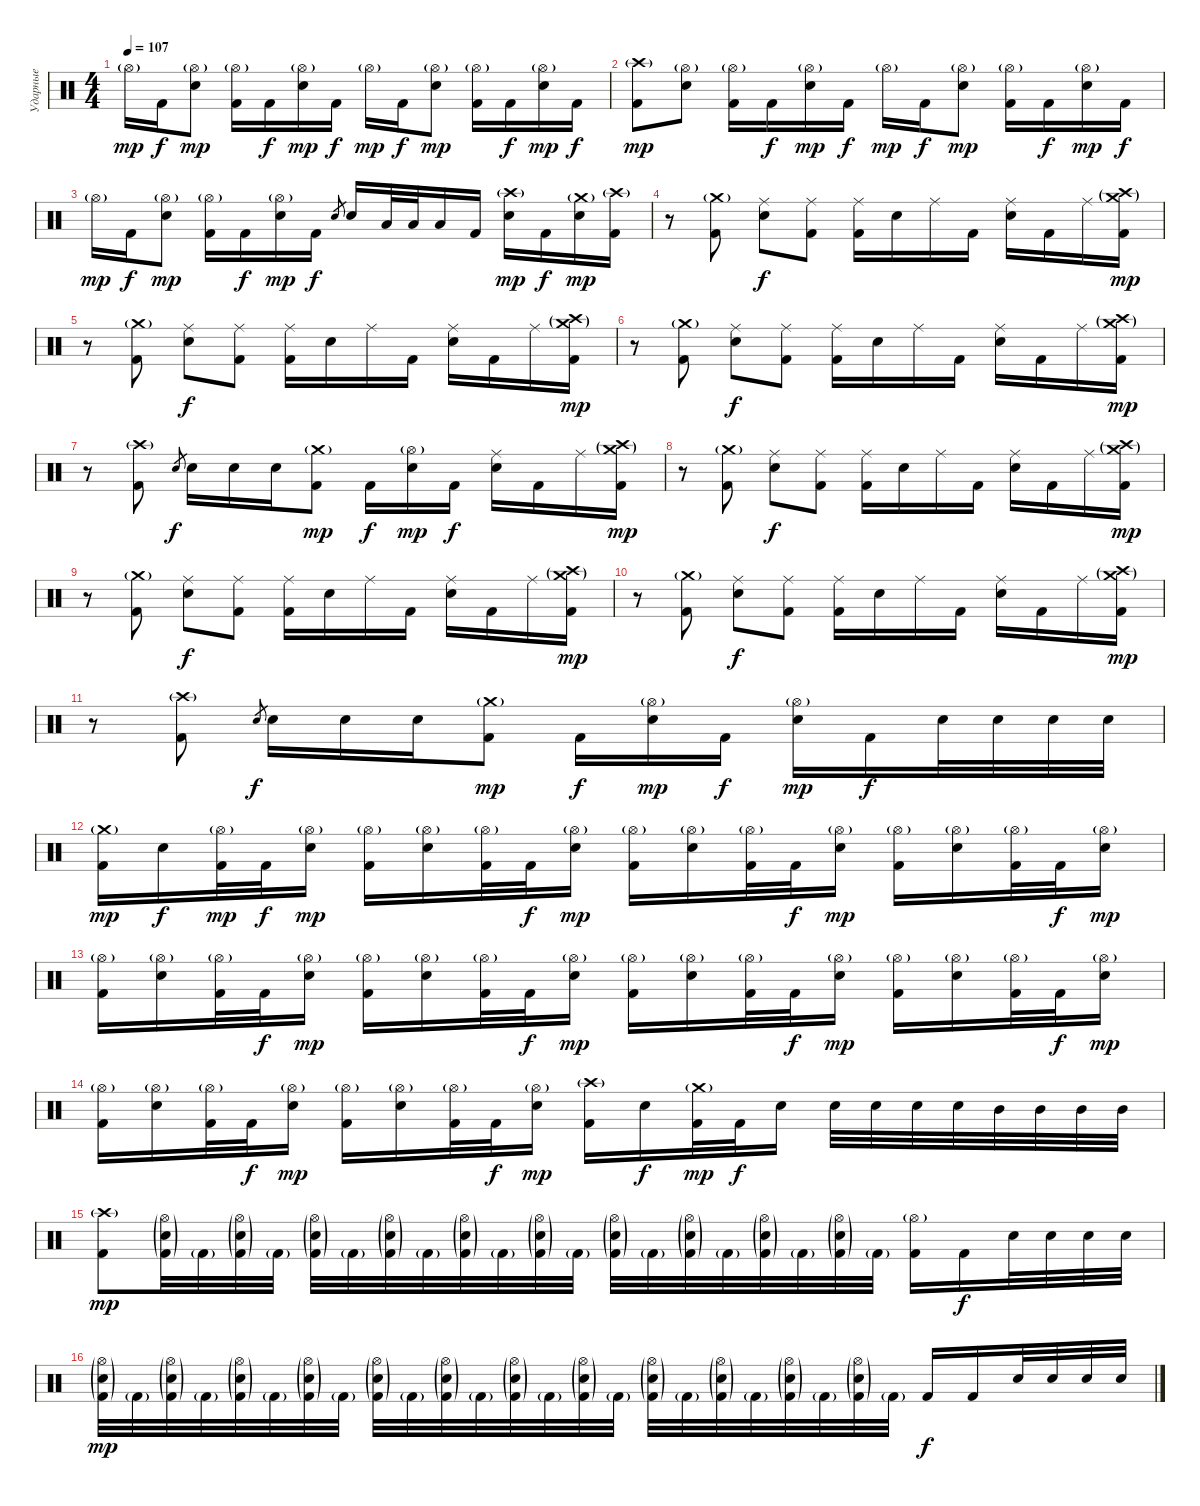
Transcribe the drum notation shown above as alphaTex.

\track ("Ударные" "Ударные") {instrument percussion}
\staff {score}
\articulation defaults
\ts (4 4)
\tempo 107
\clef neutral
\ks c "Hi-Hat (open)"{g}.16{dy mp} "Kick (hit) 2".16{dy f}
("Hi-Hat (open)"{g} "Electric Snare (hit)").8{dy mp} ("Hi-Hat (open)"{g} "Kick (hit) 2").16 "Kick (hit) 2".16{dy f} ("Hi-Hat (open)"{g} "Electric Snare (hit)").16{dy mp} "Kick (hit) 2".16{dy f} "Hi-Hat (open)"{g}.16{dy mp} "Kick (hit) 2".16{dy f} ("Hi-Hat (open)"{g} "Electric Snare (hit)").8{dy mp} ("Hi-Hat (open)"{g} "Kick (hit) 2").16 "Kick (hit) 2".16{dy f} ("Hi-Hat (open)"{g} "Electric Snare (hit)").16{dy mp} "Kick (hit) 2".16{dy f} |
("Crash high (hit)"{g} "Kick (hit) 2").8{dy mp} ("Hi-Hat (open)"{g} "Electric Snare (hit)").8 ("Hi-Hat (open)"{g} "Kick (hit) 2").16 "Kick (hit) 2".16{dy f} ("Hi-Hat (open)"{g} "Electric Snare (hit)").16{dy mp} "Kick (hit) 2".16{dy f} "Hi-Hat (open)"{g}.16{dy mp} "Kick (hit) 2".16{dy f} ("Hi-Hat (open)"{g} "Electric Snare (hit)").8{dy mp} ("Hi-Hat (open)"{g} "Kick (hit) 2").16 "Kick (hit) 2".16{dy f} ("Hi-Hat (open)"{g} "Electric Snare (hit)").16{dy mp} "Kick (hit) 2".16{dy f} |
"Hi-Hat (open)"{g}.16{dy mp} "Kick (hit) 2".16{dy f} ("Hi-Hat (open)"{g} "Electric Snare (hit)").8{dy mp} ("Hi-Hat (open)"{g} "Kick (hit) 2").16 "Kick (hit) 2".16{dy f} ("Hi-Hat (open)"{g} "Electric Snare (hit)").16{dy mp} "Kick (hit) 2".16{dy f} "Electric Snare (hit)".8{gr} "Electric Snare (hit)".16 "Low Tom (hit)".32 "Low Tom (hit)".32 "Low Tom (hit)".16 "Kick (hit) 2".16 ("Crash high (hit)"{g} "Electric Snare (hit)").16{dy mp} "Kick (hit) 2".16{dy f} ("Crash medium (hit)"{g} "Electric Snare (hit)").16{dy mp} ("Crash high (hit)"{g} "Kick (hit) 2").16 |
r.8 ("Crash medium (hit)"{g} "Kick (hit) 2").8 ("Ride (middle)" "Electric Snare (hit)").8{dy f} ("Ride (middle)" "Kick (hit) 2").8 ("Ride (middle)" "Kick (hit) 2").16 "Electric Snare (hit)".16 "Ride (middle)".16 "Kick (hit) 2".16 ("Ride (middle)" "Electric Snare (hit)").16 "Kick (hit) 2".16 "Ride (middle)".16 ("Crash high (hit)"{g} "Crash medium (hit)"{g} "Kick (hit) 2").16{dy mp} |
r.8 ("Crash medium (hit)"{g} "Kick (hit) 2").8 ("Ride (middle)" "Electric Snare (hit)").8{dy f} ("Ride (middle)" "Kick (hit) 2").8 ("Ride (middle)" "Kick (hit) 2").16 "Electric Snare (hit)".16 "Ride (middle)".16 "Kick (hit) 2".16 ("Ride (middle)" "Electric Snare (hit)").16 "Kick (hit) 2".16 "Ride (middle)".16 ("Crash high (hit)"{g} "Crash medium (hit)"{g} "Kick (hit) 2").16{dy mp} |
r.8 ("Crash medium (hit)"{g} "Kick (hit) 2").8 ("Ride (middle)" "Electric Snare (hit)").8{dy f} ("Ride (middle)" "Kick (hit) 2").8 ("Ride (middle)" "Kick (hit) 2").16 "Electric Snare (hit)".16 "Ride (middle)".16 "Kick (hit) 2".16 ("Ride (middle)" "Electric Snare (hit)").16 "Kick (hit) 2".16 "Ride (middle)".16 ("Crash high (hit)"{g} "Crash medium (hit)"{g} "Kick (hit) 2").16{dy mp} |
r.8 ("Crash high (hit)"{g} "Kick (hit) 2").8 "Electric Snare (hit)".8{gr dy f} "Electric Snare (hit)".16 "Electric Snare (hit)".16 "Electric Snare (hit)".16 ("Crash medium (hit)"{g} "Kick (hit) 2").8{dy mp} "Kick (hit) 2".16{dy f} ("Hi-Hat (open)"{g} "Electric Snare (hit)").16{dy mp} "Kick (hit) 2".16{dy f} ("Ride (middle)" "Electric Snare (hit)").16 "Kick (hit) 2".16 "Ride (middle)".16 ("Crash medium (hit)"{g} "Crash high (hit)"{g} "Kick (hit) 2").16{dy mp} |
r.8 ("Crash medium (hit)"{g} "Kick (hit) 2").8 ("Ride (middle)" "Electric Snare (hit)").8{dy f} ("Ride (middle)" "Kick (hit) 2").8 ("Ride (middle)" "Kick (hit) 2").16 "Electric Snare (hit)".16 "Ride (middle)".16 "Kick (hit) 2".16 ("Ride (middle)" "Electric Snare (hit)").16 "Kick (hit) 2".16 "Ride (middle)".16 ("Crash high (hit)"{g} "Crash medium (hit)"{g} "Kick (hit) 2").16{dy mp} |
r.8 ("Crash medium (hit)"{g} "Kick (hit) 2").8 ("Ride (middle)" "Electric Snare (hit)").8{dy f} ("Ride (middle)" "Kick (hit) 2").8 ("Ride (middle)" "Kick (hit) 2").16 "Electric Snare (hit)".16 "Ride (middle)".16 "Kick (hit) 2".16 ("Ride (middle)" "Electric Snare (hit)").16 "Kick (hit) 2".16 "Ride (middle)".16 ("Crash high (hit)"{g} "Crash medium (hit)"{g} "Kick (hit) 2").16{dy mp} |
r.8 ("Crash medium (hit)"{g} "Kick (hit) 2").8 ("Ride (middle)" "Electric Snare (hit)").8{dy f} ("Ride (middle)" "Kick (hit) 2").8 ("Ride (middle)" "Kick (hit) 2").16 "Electric Snare (hit)".16 "Ride (middle)".16 "Kick (hit) 2".16 ("Ride (middle)" "Electric Snare (hit)").16 "Kick (hit) 2".16 "Ride (middle)".16 ("Crash high (hit)"{g} "Crash medium (hit)"{g} "Kick (hit) 2").16{dy mp} |
r.8 ("Crash high (hit)"{g} "Kick (hit) 2").8 "Electric Snare (hit)".8{gr dy f} "Electric Snare (hit)".16 "Electric Snare (hit)".16 "Electric Snare (hit)".16 ("Crash medium (hit)"{g} "Kick (hit) 2").8{dy mp} "Kick (hit) 2".16{dy f} ("Hi-Hat (open)"{g} "Electric Snare (hit)").16{dy mp} "Kick (hit) 2".16{dy f} ("Hi-Hat (open)"{g} "Electric Snare (hit)").16{dy mp} "Kick (hit) 2".16{dy f} "Electric Snare (hit)".32 "Electric Snare (hit)".32 "Electric Snare (hit)".32 "Electric Snare (hit)".32 |
("Crash medium (hit)"{g} "Kick (hit) 2").16{dy mp} "Electric Snare (hit)".16{dy f} ("Hi-Hat (open)"{g} "Kick (hit) 2").32{dy mp} "Kick (hit) 2".32{dy f} ("Hi-Hat (open)"{g} "Electric Snare (hit)").16{dy mp} ("Hi-Hat (open)"{g} "Kick (hit) 2").16 ("Hi-Hat (open)"{g} "Electric Snare (hit)").16 ("Hi-Hat (open)"{g} "Kick (hit) 2").32 "Kick (hit) 2".32{dy f} ("Hi-Hat (open)"{g} "Electric Snare (hit)").16{dy mp} ("Hi-Hat (open)"{g} "Kick (hit) 2").16 ("Hi-Hat (open)"{g} "Electric Snare (hit)").16 ("Hi-Hat (open)"{g} "Kick (hit) 2").32 "Kick (hit) 2".32{dy f} ("Hi-Hat (open)"{g} "Electric Snare (hit)").16{dy mp} ("Hi-Hat (open)"{g} "Kick (hit) 2").16 ("Hi-Hat (open)"{g} "Electric Snare (hit)").16 ("Hi-Hat (open)"{g} "Kick (hit) 2").32 "Kick (hit) 2".32{dy f} ("Hi-Hat (open)"{g} "Electric Snare (hit)").16{dy mp} |
("Hi-Hat (open)"{g} "Kick (hit) 2").16 ("Hi-Hat (open)"{g} "Electric Snare (hit)").16 ("Hi-Hat (open)"{g} "Kick (hit) 2").32 "Kick (hit) 2".32{dy f} ("Hi-Hat (open)"{g} "Electric Snare (hit)").16{dy mp} ("Hi-Hat (open)"{g} "Kick (hit) 2").16 ("Hi-Hat (open)"{g} "Electric Snare (hit)").16 ("Hi-Hat (open)"{g} "Kick (hit) 2").32 "Kick (hit) 2".32{dy f} ("Hi-Hat (open)"{g} "Electric Snare (hit)").16{dy mp} ("Hi-Hat (open)"{g} "Kick (hit) 2").16 ("Hi-Hat (open)"{g} "Electric Snare (hit)").16 ("Hi-Hat (open)"{g} "Kick (hit) 2").32 "Kick (hit) 2".32{dy f} ("Hi-Hat (open)"{g} "Electric Snare (hit)").16{dy mp} ("Hi-Hat (open)"{g} "Kick (hit) 2").16 ("Hi-Hat (open)"{g} "Electric Snare (hit)").16 ("Hi-Hat (open)"{g} "Kick (hit) 2").32 "Kick (hit) 2".32{dy f} ("Hi-Hat (open)"{g} "Electric Snare (hit)").16{dy mp} |
("Hi-Hat (open)"{g} "Kick (hit) 2").16 ("Hi-Hat (open)"{g} "Electric Snare (hit)").16 ("Hi-Hat (open)"{g} "Kick (hit) 2").32 "Kick (hit) 2".32{dy f} ("Hi-Hat (open)"{g} "Electric Snare (hit)").16{dy mp} ("Hi-Hat (open)"{g} "Kick (hit) 2").16 ("Hi-Hat (open)"{g} "Electric Snare (hit)").16 ("Hi-Hat (open)"{g} "Kick (hit) 2").32 "Kick (hit) 2".32{dy f} ("Hi-Hat (open)"{g} "Electric Snare (hit)").16{dy mp} ("Crash high (hit)"{g} "Kick (hit) 2").16 "Electric Snare (hit)".16{dy f} ("Crash medium (hit)"{g} "Kick (hit) 2").32{dy mp} "Kick (hit) 2".32{dy f} "Electric Snare (hit)".16 "Electric Snare (hit)".32 "Electric Snare (hit)".32 "Electric Snare (hit)".32 "Electric Snare (hit)".32 "Mid Tom (hit)".32 "Mid Tom (hit)".32 "Mid Tom (hit)".32 "Mid Tom (hit)".32 |
("Crash high (hit)"{g} "Kick (hit) 2").8{dy mp} ("Hi-Hat (open)"{g} "Electric Snare (hit)"{g} "Kick (hit) 2"{g}).32 "Kick (hit) 2"{g}.32 ("Hi-Hat (open)"{g} "Electric Snare (hit)"{g} "Kick (hit) 2"{g}).32 "Kick (hit) 2"{g}.32 ("Hi-Hat (open)"{g} "Electric Snare (hit)"{g} "Kick (hit) 2"{g}).32 "Kick (hit) 2"{g}.32 ("Hi-Hat (open)"{g} "Electric Snare (hit)"{g} "Kick (hit) 2"{g}).32 "Kick (hit) 2"{g}.32 ("Hi-Hat (open)"{g} "Electric Snare (hit)"{g} "Kick (hit) 2"{g}).32 "Kick (hit) 2"{g}.32 ("Hi-Hat (open)"{g} "Electric Snare (hit)"{g} "Kick (hit) 2"{g}).32 "Kick (hit) 2"{g}.32 ("Hi-Hat (open)"{g} "Electric Snare (hit)"{g} "Kick (hit) 2"{g}).32 "Kick (hit) 2"{g}.32 ("Hi-Hat (open)"{g} "Electric Snare (hit)"{g} "Kick (hit) 2"{g}).32 "Kick (hit) 2"{g}.32 ("Hi-Hat (open)"{g} "Electric Snare (hit)"{g} "Kick (hit) 2"{g}).32 "Kick (hit) 2"{g}.32 ("Hi-Hat (open)"{g} "Electric Snare (hit)"{g} "Kick (hit) 2"{g}).32 "Kick (hit) 2"{g}.32 ("Hi-Hat (open)"{g} "Kick (hit) 2").16 "Kick (hit) 2".16{dy f} "Electric Snare (hit)".32 "Electric Snare (hit)".32 "Electric Snare (hit)".32 "Electric Snare (hit)".32 |
("Hi-Hat (open)"{g} "Electric Snare (hit)"{g} "Kick (hit) 2"{g}).32{dy mp} "Kick (hit) 2"{g}.32 ("Hi-Hat (open)"{g} "Electric Snare (hit)"{g} "Kick (hit) 2"{g}).32 "Kick (hit) 2"{g}.32 ("Hi-Hat (open)"{g} "Electric Snare (hit)"{g} "Kick (hit) 2"{g}).32 "Kick (hit) 2"{g}.32 ("Hi-Hat (open)"{g} "Electric Snare (hit)"{g} "Kick (hit) 2"{g}).32 "Kick (hit) 2"{g}.32 ("Hi-Hat (open)"{g} "Electric Snare (hit)"{g} "Kick (hit) 2"{g}).32 "Kick (hit) 2"{g}.32 ("Hi-Hat (open)"{g} "Electric Snare (hit)"{g} "Kick (hit) 2"{g}).32 "Kick (hit) 2"{g}.32 ("Hi-Hat (open)"{g} "Electric Snare (hit)"{g} "Kick (hit) 2"{g}).32 "Kick (hit) 2"{g}.32 ("Hi-Hat (open)"{g} "Electric Snare (hit)"{g} "Kick (hit) 2"{g}).32 "Kick (hit) 2"{g}.32 ("Hi-Hat (open)"{g} "Electric Snare (hit)"{g} "Kick (hit) 2"{g}).32 "Kick (hit) 2"{g}.32 ("Hi-Hat (open)"{g} "Electric Snare (hit)"{g} "Kick (hit) 2"{g}).32 "Kick (hit) 2"{g}.32 ("Hi-Hat (open)"{g} "Electric Snare (hit)"{g} "Kick (hit) 2"{g}).32 "Kick (hit) 2"{g}.32 ("Hi-Hat (open)"{g} "Electric Snare (hit)"{g} "Kick (hit) 2"{g}).32 "Kick (hit) 2"{g}.32 "Kick (hit) 2".16{dy f} "Kick (hit) 2".16 "Electric Snare (hit)".32 "Electric Snare (hit)".32 "Electric Snare (hit)".32 "Electric Snare (hit)".32
